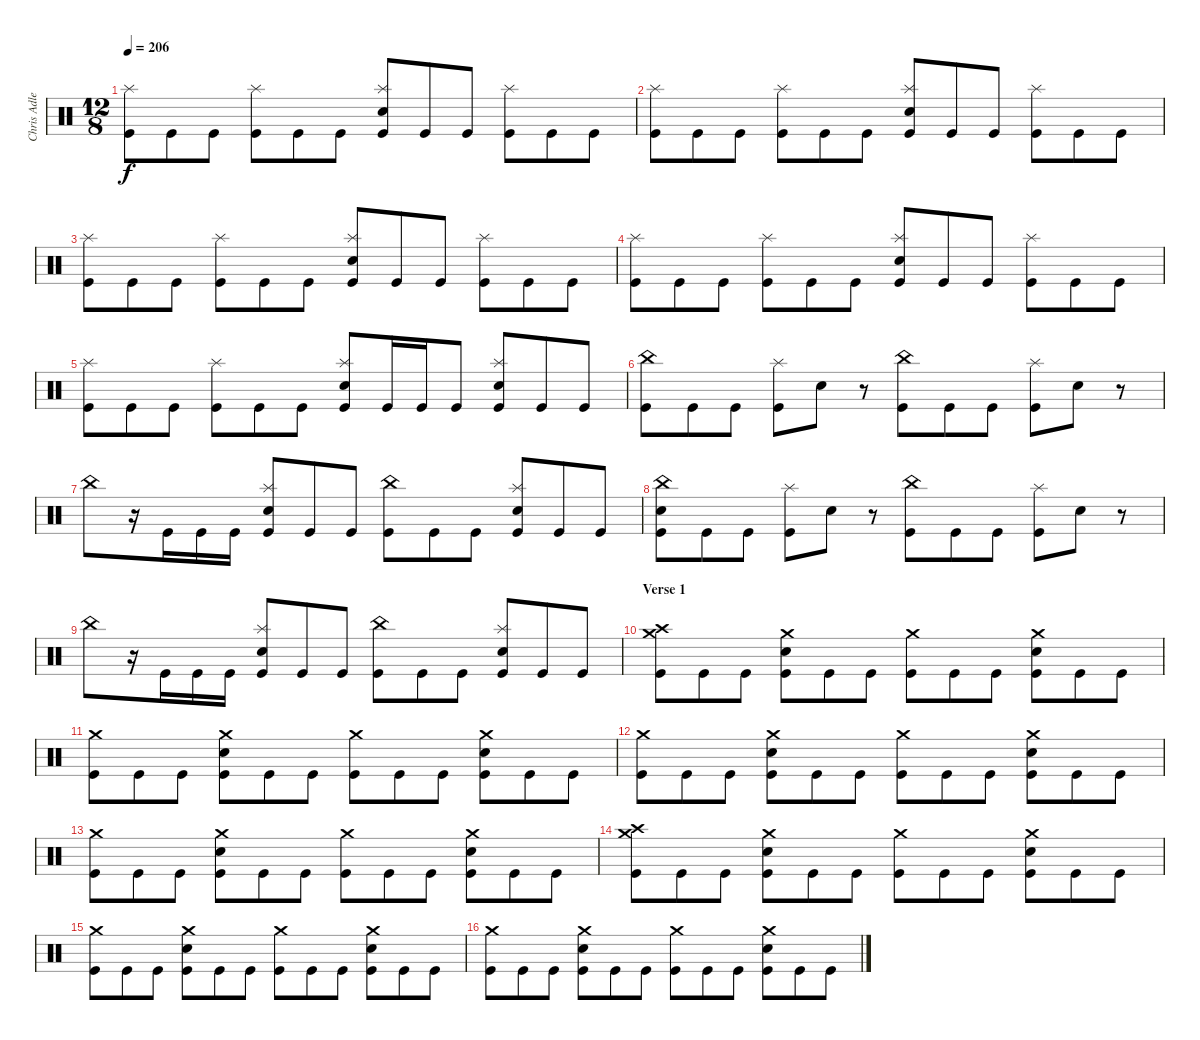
\track ("Chris Adler" "Chris Adle") {instrument percussion}
\staff {score}
\articulation defaults
\ts (12 8)
\tempo 206
\clef neutral
\ks c
("Kick (hit)" "Splash (hit)").8{dy f} "Kick (hit)".8 "Kick (hit)".8 ("Kick (hit)" "Splash (hit)").8 "Kick (hit)".8 "Kick (hit)".8 ("Snare (hit) 2" "Kick (hit)" "Splash (hit)").8 "Kick (hit)".8 "Kick (hit)".8 ("Kick (hit)" "Splash (hit)").8 "Kick (hit)".8 "Kick (hit)".8 |
("Kick (hit)" "Splash (hit)").8 "Kick (hit)".8 "Kick (hit)".8 ("Kick (hit)" "Splash (hit)").8 "Kick (hit)".8 "Kick (hit)".8 ("Snare (hit) 2" "Kick (hit)" "Splash (hit)").8 "Kick (hit)".8 "Kick (hit)".8 ("Kick (hit)" "Splash (hit)").8 "Kick (hit)".8 "Kick (hit)".8 |
("Kick (hit)" "Splash (hit)").8 "Kick (hit)".8 "Kick (hit)".8 ("Kick (hit)" "Splash (hit)").8 "Kick (hit)".8 "Kick (hit)".8 ("Snare (hit) 2" "Kick (hit)" "Splash (hit)").8 "Kick (hit)".8 "Kick (hit)".8 ("Kick (hit)" "Splash (hit)").8 "Kick (hit)".8 "Kick (hit)".8 |
("Kick (hit)" "Splash (hit)").8 "Kick (hit)".8 "Kick (hit)".8 ("Kick (hit)" "Splash (hit)").8 "Kick (hit)".8 "Kick (hit)".8 ("Snare (hit) 2" "Kick (hit)" "Splash (hit)").8 "Kick (hit)".8 "Kick (hit)".8 ("Kick (hit)" "Splash (hit)").8 "Kick (hit)".8 "Kick (hit)".8 |
("Kick (hit)" "Splash (hit)").8 "Kick (hit)".8 "Kick (hit)".8 ("Kick (hit)" "Splash (hit)").8 "Kick (hit)".8 "Kick (hit)".8 ("Snare (hit) 2" "Kick (hit)" "Splash (hit)").8 "Kick (hit)".16 "Kick (hit)".16 "Kick (hit)".8 ("Kick (hit)" "Splash (hit)" "Snare (hit) 2").8 "Kick (hit)".8 "Kick (hit)".8 |
("Kick (hit)" "China (hit)").8 "Kick (hit)".8 "Kick (hit)".8 ("Kick (hit)" "Splash (hit)").8 "Snare (hit) 2".8 r.8 ("Kick (hit)" "China (hit)").8 "Kick (hit)".8 "Kick (hit)".8 ("Kick (hit)" "Splash (hit)").8 "Snare (hit) 2".8 r.8 |
"China (hit)".8 r.16 "Kick (hit)".16 "Kick (hit)".16 "Kick (hit)".16 ("Snare (hit) 2" "Kick (hit)" "Splash (hit)").8 "Kick (hit)".8 "Kick (hit)".8 ("Kick (hit)" "China (hit)").8 "Kick (hit)".8 "Kick (hit)".8 ("Snare (hit) 2" "Kick (hit)" "Splash (hit)").8 "Kick (hit)".8 "Kick (hit)".8 |
("Kick (hit)" "China (hit)" "Snare (hit) 2").8 "Kick (hit)".8 "Kick (hit)".8 ("Kick (hit)" "Splash (hit)").8 "Snare (hit) 2".8 r.8 ("Kick (hit)" "China (hit)").8 "Kick (hit)".8 "Kick (hit)".8 ("Kick (hit)" "Splash (hit)").8 "Snare (hit) 2".8 r.8 |
"China (hit)".8 r.16 "Kick (hit)".16 "Kick (hit)".16 "Kick (hit)".16 ("Snare (hit) 2" "Kick (hit)" "Splash (hit)").8 "Kick (hit)".8 "Kick (hit)".8 ("Kick (hit)" "China (hit)").8 "Kick (hit)".8 "Kick (hit)".8 ("Snare (hit) 2" "Kick (hit)" "Splash (hit)").8 "Kick (hit)".8 "Kick (hit)".8 |
\section ("" "Verse 1")
("Kick (hit)" "Crash medium (hit)" "Crash high (hit)").8 "Kick (hit)".8 "Kick (hit)".8 ("Snare (hit) 2" "Kick (hit)" "Crash medium (hit)").8 "Kick (hit)".8 "Kick (hit)".8 ("Kick (hit)" "Crash medium (hit)").8 "Kick (hit)".8 "Kick (hit)".8 ("Snare (hit) 2" "Kick (hit)" "Crash medium (hit)").8 "Kick (hit)".8 "Kick (hit)".8 |
("Kick (hit)" "Crash medium (hit)").8 "Kick (hit)".8 "Kick (hit)".8 ("Snare (hit) 2" "Kick (hit)" "Crash medium (hit)").8 "Kick (hit)".8 "Kick (hit)".8 ("Kick (hit)" "Crash medium (hit)").8 "Kick (hit)".8 "Kick (hit)".8 ("Snare (hit) 2" "Kick (hit)" "Crash medium (hit)").8 "Kick (hit)".8 "Kick (hit)".8 |
("Kick (hit)" "Crash medium (hit)").8 "Kick (hit)".8 "Kick (hit)".8 ("Snare (hit) 2" "Kick (hit)" "Crash medium (hit)").8 "Kick (hit)".8 "Kick (hit)".8 ("Kick (hit)" "Crash medium (hit)").8 "Kick (hit)".8 "Kick (hit)".8 ("Snare (hit) 2" "Kick (hit)" "Crash medium (hit)").8 "Kick (hit)".8 "Kick (hit)".8 |
("Kick (hit)" "Crash medium (hit)").8 "Kick (hit)".8 "Kick (hit)".8 ("Snare (hit) 2" "Kick (hit)" "Crash medium (hit)").8 "Kick (hit)".8 "Kick (hit)".8 ("Kick (hit)" "Crash medium (hit)").8 "Kick (hit)".8 "Kick (hit)".8 ("Snare (hit) 2" "Kick (hit)" "Crash medium (hit)").8 "Kick (hit)".8 "Kick (hit)".8 |
("Kick (hit)" "Crash medium (hit)" "Crash high (hit)").8 "Kick (hit)".8 "Kick (hit)".8 ("Snare (hit) 2" "Kick (hit)" "Crash medium (hit)").8 "Kick (hit)".8 "Kick (hit)".8 ("Kick (hit)" "Crash medium (hit)").8 "Kick (hit)".8 "Kick (hit)".8 ("Snare (hit) 2" "Kick (hit)" "Crash medium (hit)").8 "Kick (hit)".8 "Kick (hit)".8 |
("Kick (hit)" "Crash medium (hit)").8 "Kick (hit)".8 "Kick (hit)".8 ("Snare (hit) 2" "Kick (hit)" "Crash medium (hit)").8 "Kick (hit)".8 "Kick (hit)".8 ("Kick (hit)" "Crash medium (hit)").8 "Kick (hit)".8 "Kick (hit)".8 ("Snare (hit) 2" "Kick (hit)" "Crash medium (hit)").8 "Kick (hit)".8 "Kick (hit)".8 |
("Kick (hit)" "Crash medium (hit)").8 "Kick (hit)".8 "Kick (hit)".8 ("Snare (hit) 2" "Kick (hit)" "Crash medium (hit)").8 "Kick (hit)".8 "Kick (hit)".8 ("Kick (hit)" "Crash medium (hit)").8 "Kick (hit)".8 "Kick (hit)".8 ("Snare (hit) 2" "Kick (hit)" "Crash medium (hit)").8 "Kick (hit)".8 "Kick (hit)".8
